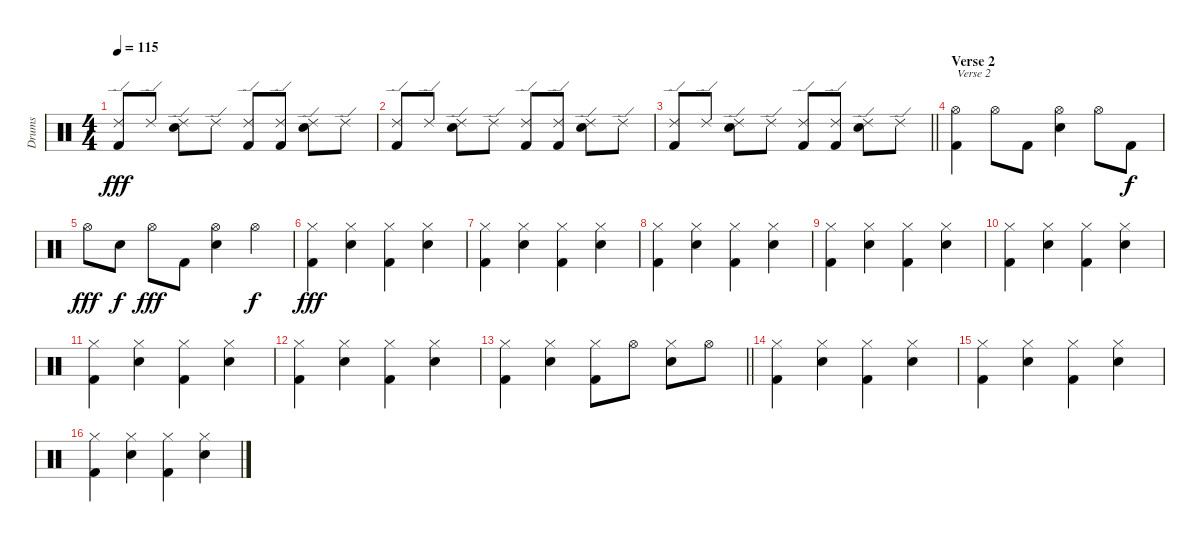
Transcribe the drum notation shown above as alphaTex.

\track ("Drums" "Drums") {instrument percussion}
\staff {score}
\articulation defaults
\ts (4 4)
\tempo 115
\clef neutral
\ks c
("Ride (edge) 2" "Kick (hit) 2").8{dy fff} "Ride (edge) 2".8 ("Ride (edge) 2" "Snare (hit) 2").8 "Ride (edge) 2".8 ("Ride (edge) 2" "Kick (hit) 2").8 ("Ride (edge) 2" "Kick (hit) 2").8 ("Ride (edge) 2" "Snare (hit) 2").8 "Ride (edge) 2".8 |
("Ride (edge) 2" "Kick (hit) 2").8 "Ride (edge) 2".8 ("Ride (edge) 2" "Snare (hit) 2").8 "Ride (edge) 2".8 ("Ride (edge) 2" "Kick (hit) 2").8 ("Ride (edge) 2" "Kick (hit) 2").8 ("Ride (edge) 2" "Snare (hit) 2").8 "Ride (edge) 2".8 |
\barLineRight lightlight
("Ride (edge) 2" "Kick (hit) 2").8 "Ride (edge) 2".8 ("Ride (edge) 2" "Snare (hit) 2").8 "Ride (edge) 2".8 ("Ride (edge) 2" "Kick (hit) 2").8 ("Ride (edge) 2" "Kick (hit) 2").8 ("Ride (edge) 2" "Snare (hit) 2").8 "Ride (edge) 2".8 |
\section ("" "Verse 2")
("Hi-Hat (open)" "Kick (hit) 2").4{txt "Verse 2"} "Hi-Hat (open)".8 "Kick (hit) 2".8 ("Hi-Hat (open)" "Snare (hit) 2").4 "Hi-Hat (open)".8 "Kick (hit) 2".8{dy f} |
"Hi-Hat (open)".8{dy fff} "Snare (hit) 2".8{dy f} "Hi-Hat (open)".8{dy fff} "Kick (hit) 2".8 ("Hi-Hat (open)" "Snare (hit) 2").4 "Hi-Hat (open)".4{dy f} |
("Hi-Hat (closed)" "Kick (hit) 2").4{dy fff} ("Hi-Hat (closed)" "Snare (hit) 2").4 ("Hi-Hat (closed)" "Kick (hit) 2").4 ("Hi-Hat (closed)" "Snare (hit) 2").4 |
("Hi-Hat (closed)" "Kick (hit) 2").4 ("Hi-Hat (closed)" "Snare (hit) 2").4 ("Hi-Hat (closed)" "Kick (hit) 2").4 ("Hi-Hat (closed)" "Snare (hit) 2").4 |
("Hi-Hat (closed)" "Kick (hit) 2").4 ("Hi-Hat (closed)" "Snare (hit) 2").4 ("Hi-Hat (closed)" "Kick (hit) 2").4 ("Hi-Hat (closed)" "Snare (hit) 2").4 |
("Hi-Hat (closed)" "Kick (hit) 2").4 ("Hi-Hat (closed)" "Snare (hit) 2").4 ("Hi-Hat (closed)" "Kick (hit) 2").4 ("Hi-Hat (closed)" "Snare (hit) 2").4 |
("Hi-Hat (closed)" "Kick (hit) 2").4 ("Hi-Hat (closed)" "Snare (hit) 2").4 ("Hi-Hat (closed)" "Kick (hit) 2").4 ("Hi-Hat (closed)" "Snare (hit) 2").4 |
("Hi-Hat (closed)" "Kick (hit) 2").4 ("Hi-Hat (closed)" "Snare (hit) 2").4 ("Hi-Hat (closed)" "Kick (hit) 2").4 ("Hi-Hat (closed)" "Snare (hit) 2").4 |
("Hi-Hat (closed)" "Kick (hit) 2").4 ("Hi-Hat (closed)" "Snare (hit) 2").4 ("Hi-Hat (closed)" "Kick (hit) 2").4 ("Hi-Hat (closed)" "Snare (hit) 2").4 |
\barLineRight lightlight
("Hi-Hat (closed)" "Kick (hit) 2").4 ("Hi-Hat (closed)" "Snare (hit) 2").4 ("Hi-Hat (closed)" "Kick (hit) 2").8 "Hi-Hat (open)".8 ("Hi-Hat (closed)" "Snare (hit) 2").8 "Hi-Hat (open)".8 |
("Hi-Hat (closed)" "Kick (hit) 2").4 ("Hi-Hat (closed)" "Snare (hit) 2").4 ("Hi-Hat (closed)" "Kick (hit) 2").4 ("Hi-Hat (closed)" "Snare (hit) 2").4 |
("Hi-Hat (closed)" "Kick (hit) 2").4 ("Hi-Hat (closed)" "Snare (hit) 2").4 ("Hi-Hat (closed)" "Kick (hit) 2").4 ("Hi-Hat (closed)" "Snare (hit) 2").4 |
("Hi-Hat (closed)" "Kick (hit) 2").4 ("Hi-Hat (closed)" "Snare (hit) 2").4 ("Hi-Hat (closed)" "Kick (hit) 2").4 ("Hi-Hat (closed)" "Snare (hit) 2").4
